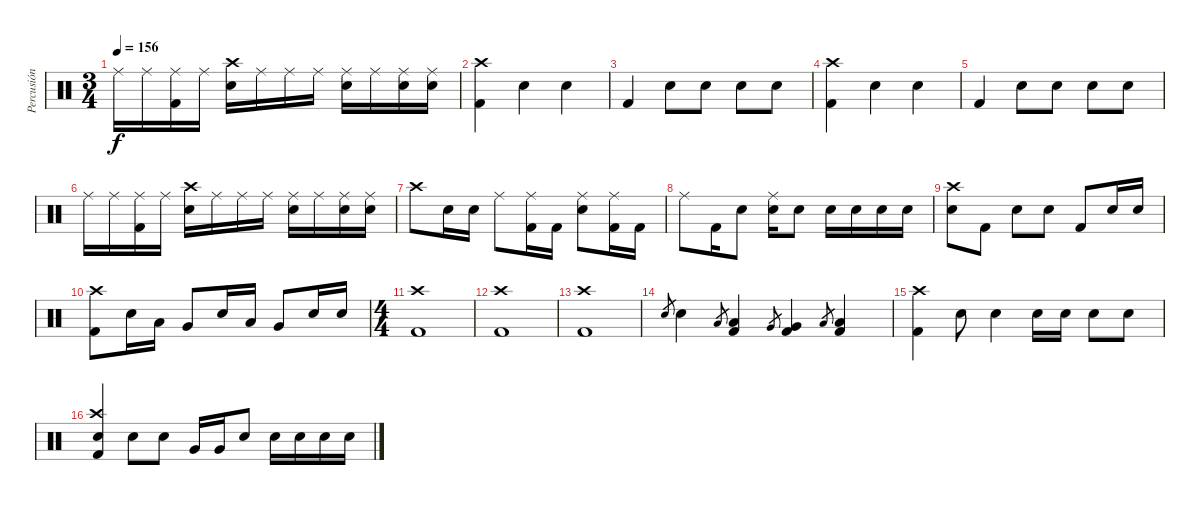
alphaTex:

\track ("Percusión" "Percusión") {instrument percussion}
\staff {score}
\articulation defaults
\ts (3 4)
\tempo 156
\clef neutral
\ks c "Ride (middle)".16{dy f} "Ride (middle)".16
("Ride (middle)" "Kick (hit) 2").16 "Ride (middle)".16 ("Crash high (hit)" "Electric Snare (hit)").16 "Ride (middle)".16 "Ride (middle)".16 "Ride (middle)".16 ("Ride (middle)" "Electric Snare (hit)").16 "Ride (middle)".16 ("Ride (middle)" "Electric Snare (hit)").16 ("Ride (middle)" "Electric Snare (hit)").16 |
("Crash high (hit)" "Kick (hit) 2").4 "Electric Snare (hit)".4 "Electric Snare (hit)".4 |
"Kick (hit) 2".4 "Electric Snare (hit)".8 "Electric Snare (hit)".8 "Electric Snare (hit)".8 "Electric Snare (hit)".8 |
("Crash high (hit)" "Kick (hit) 2").4 "Electric Snare (hit)".4 "Electric Snare (hit)".4 |
"Kick (hit) 2".4 "Electric Snare (hit)".8 "Electric Snare (hit)".8 "Electric Snare (hit)".8 "Electric Snare (hit)".8 |
"Ride (middle)".16 "Ride (middle)".16 ("Ride (middle)" "Kick (hit) 2").16 "Ride (middle)".16 ("Crash high (hit)" "Electric Snare (hit)").16 "Ride (middle)".16 "Ride (middle)".16 "Ride (middle)".16 ("Ride (middle)" "Electric Snare (hit)").16 "Ride (middle)".16 ("Ride (middle)" "Electric Snare (hit)").16 ("Ride (middle)" "Electric Snare (hit)").16 |
"Crash high (hit)".8 "Electric Snare (hit)".16 "Electric Snare (hit)".16 "Ride (middle)".8 ("Ride (middle)" "Kick (hit) 2").16 "Kick (hit) 2".16 ("Ride (middle)" "Electric Snare (hit)").8 ("Ride (middle)" "Kick (hit) 2").16 "Kick (hit) 2".16 |
"Ride (middle)".8 "Kick (hit) 2".16 "Electric Snare (hit)".8 ("Ride (middle)" "Electric Snare (hit)").16 "Electric Snare (hit)".8 "Electric Snare (hit)".16 "Electric Snare (hit)".16 "Electric Snare (hit)".16 "Electric Snare (hit)".16 |
("Crash high (hit)" "Electric Snare (hit)").8 "Kick (hit) 2".8 "Electric Snare (hit)".8 "Electric Snare (hit)".8 "Kick (hit) 2".8 "Electric Snare (hit)".16 "Electric Snare (hit)".16 |
("Crash high (hit)" "Kick (hit) 2").8 "Electric Snare (hit)".16 "Low Tom (hit)".16 "Very Low Tom (hit)".8 "Electric Snare (hit)".16 "Low Tom (hit)".16 "Very Low Tom (hit)".8 "Electric Snare (hit)".16 "Electric Snare (hit)".16 |
\ts (4 4)
("Crash high (hit)" "Kick (hit) 2").1 |
("Crash high (hit)" "Kick (hit) 2").1 |
("Crash high (hit)" "Kick (hit) 2").1 |
"Electric Snare (hit)".8{gr} "Electric Snare (hit)".4 "Low Tom (hit)".8{gr} ("Low Tom (hit)" "Kick (hit) 2").4 "Very Low Tom (hit)".8{gr} ("Very Low Tom (hit)" "Kick (hit) 2").4 "Low Floor Tom (hit)".8{gr} ("Low Floor Tom (hit)" "Kick (hit) 2").4 |
("Crash high (hit)" "Kick (hit) 2").4 "Electric Snare (hit)".8 "Electric Snare (hit)".4 "Electric Snare (hit)".16 "Electric Snare (hit)".16 "Electric Snare (hit)".8 "Electric Snare (hit)".8 |
("Crash high (hit)" "Electric Snare (hit)" "Kick (hit) 2").4 "Electric Snare (hit)".8 "Electric Snare (hit)".8 "Very Low Tom (hit)".16 "Very Low Tom (hit)".16 "Electric Snare (hit)".8 "Electric Snare (hit)".16 "Electric Snare (hit)".16 "Electric Snare (hit)".16 "Electric Snare (hit)".16
